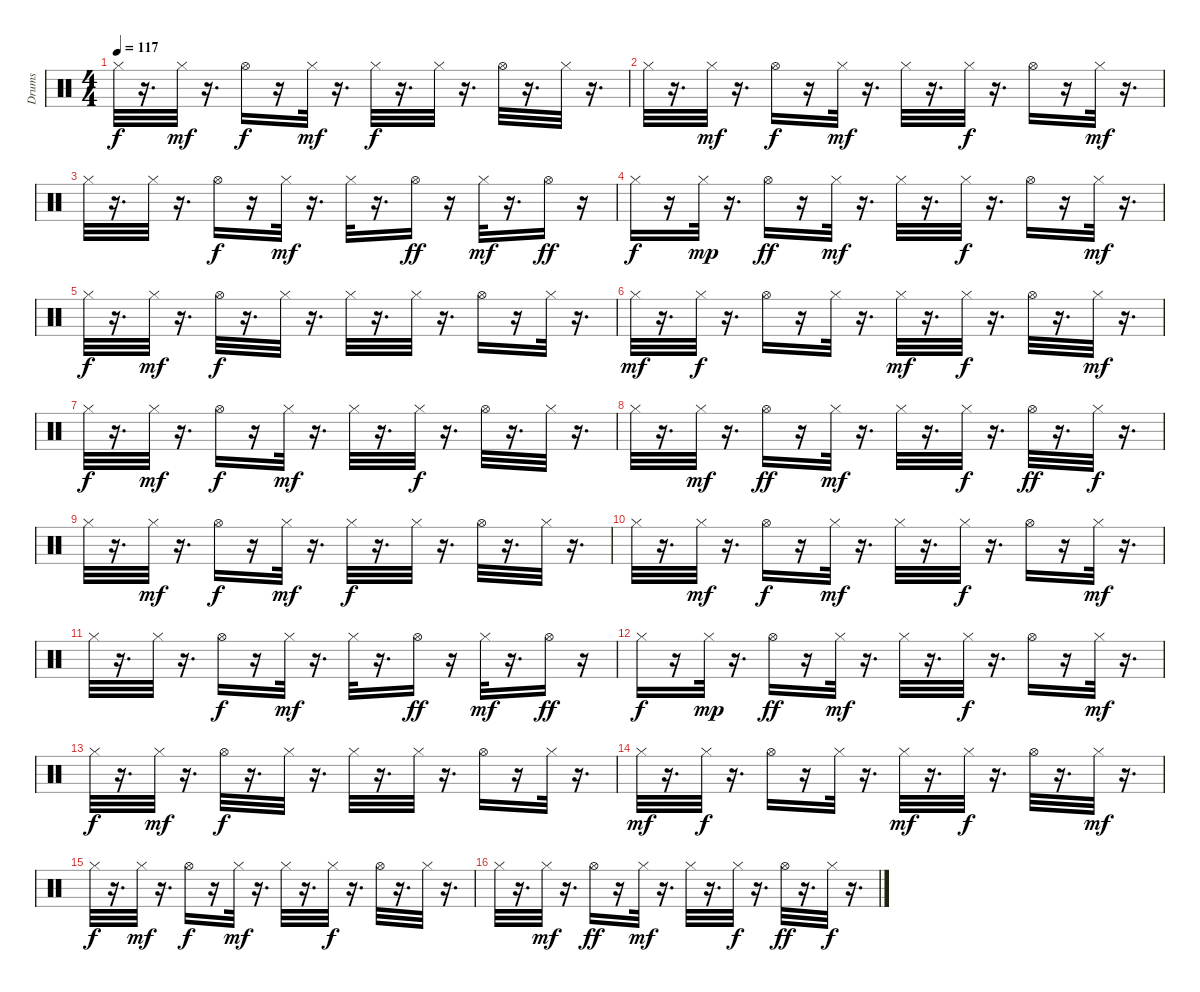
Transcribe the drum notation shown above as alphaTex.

\track ("Drums" "Drums") {instrument percussion}
\staff {score}
\articulation defaults
\ts (4 4)
\tempo 117
\clef neutral
\ks c "Hi-Hat (closed)".32{dy f}
r.16{d} "Hi-Hat (closed)".32{dy mf} r.16{d} "Hi-Hat (open)".16{dy f} r.16 "Hi-Hat (closed)".32{dy mf} r.16{d} "Hi-Hat (closed)".32{dy f} r.16{d} "Hi-Hat (closed)".32 r.16{d} "Hi-Hat (open)".32 r.16{d} "Hi-Hat (closed)".32 r.16{d} |
"Hi-Hat (closed)".32 r.16{d} "Hi-Hat (closed)".32{dy mf} r.16{d} "Hi-Hat (open)".16{dy f} r.16 "Hi-Hat (closed)".32{dy mf} r.16{d} "Hi-Hat (closed)".32 r.16{d} "Hi-Hat (closed)".32{dy f} r.16{d} "Hi-Hat (open)".16 r.16 "Hi-Hat (closed)".32{dy mf} r.16{d} |
"Hi-Hat (closed)".32 r.16{d} "Hi-Hat (closed)".32 r.16{d} "Hi-Hat (open)".16{dy f} r.16 "Hi-Hat (closed)".32{dy mf} r.16{d} "Hi-Hat (closed)".32 r.16{d} "Hi-Hat (open)".16{dy ff} r.16 "Hi-Hat (closed)".32{dy mf} r.16{d} "Hi-Hat (open)".16{dy ff} r.16 |
"Hi-Hat (closed)".16{dy f} r.16 "Hi-Hat (closed)".32{dy mp} r.16{d} "Hi-Hat (open)".16{dy ff} r.16 "Hi-Hat (closed)".32{dy mf} r.16{d} "Hi-Hat (closed)".32 r.16{d} "Hi-Hat (closed)".32{dy f} r.16{d} "Hi-Hat (open)".16 r.16 "Hi-Hat (closed)".32{dy mf} r.16{d} |
"Hi-Hat (closed)".32{dy f} r.16{d} "Hi-Hat (closed)".32{dy mf} r.16{d} "Hi-Hat (open)".32{dy f} r.16{d} "Hi-Hat (closed)".32 r.16{d} "Hi-Hat (closed)".32 r.16{d} "Hi-Hat (closed)".32 r.16{d} "Hi-Hat (open)".16 r.16 "Hi-Hat (closed)".32 r.16{d} |
"Hi-Hat (closed)".32{dy mf} r.16{d} "Hi-Hat (closed)".32{dy f} r.16{d} "Hi-Hat (open)".16 r.16 "Hi-Hat (closed)".32 r.16{d} "Hi-Hat (closed)".32{dy mf} r.16{d} "Hi-Hat (closed)".32{dy f} r.16{d} "Hi-Hat (open)".32 r.16{d} "Hi-Hat (closed)".32{dy mf} r.16{d} |
"Hi-Hat (closed)".32{dy f} r.16{d} "Hi-Hat (closed)".32{dy mf} r.16{d} "Hi-Hat (open)".16{dy f} r.16 "Hi-Hat (closed)".32{dy mf} r.16{d} "Hi-Hat (closed)".32 r.16{d} "Hi-Hat (closed)".32{dy f} r.16{d} "Hi-Hat (open)".32 r.16{d} "Hi-Hat (closed)".32 r.16{d} |
"Hi-Hat (closed)".32 r.16{d} "Hi-Hat (closed)".32{dy mf} r.16{d} "Hi-Hat (open)".16{dy ff} r.16 "Hi-Hat (closed)".32{dy mf} r.16{d} "Hi-Hat (closed)".32 r.16{d} "Hi-Hat (closed)".32{dy f} r.16{d} "Hi-Hat (open)".32{dy ff} r.16{d} "Hi-Hat (closed)".32{dy f} r.16{d} |
"Hi-Hat (closed)".32 r.16{d} "Hi-Hat (closed)".32{dy mf} r.16{d} "Hi-Hat (open)".16{dy f} r.16 "Hi-Hat (closed)".32{dy mf} r.16{d} "Hi-Hat (closed)".32{dy f} r.16{d} "Hi-Hat (closed)".32 r.16{d} "Hi-Hat (open)".32 r.16{d} "Hi-Hat (closed)".32 r.16{d} |
"Hi-Hat (closed)".32 r.16{d} "Hi-Hat (closed)".32{dy mf} r.16{d} "Hi-Hat (open)".16{dy f} r.16 "Hi-Hat (closed)".32{dy mf} r.16{d} "Hi-Hat (closed)".32 r.16{d} "Hi-Hat (closed)".32{dy f} r.16{d} "Hi-Hat (open)".16 r.16 "Hi-Hat (closed)".32{dy mf} r.16{d} |
"Hi-Hat (closed)".32 r.16{d} "Hi-Hat (closed)".32 r.16{d} "Hi-Hat (open)".16{dy f} r.16 "Hi-Hat (closed)".32{dy mf} r.16{d} "Hi-Hat (closed)".32 r.16{d} "Hi-Hat (open)".16{dy ff} r.16 "Hi-Hat (closed)".32{dy mf} r.16{d} "Hi-Hat (open)".16{dy ff} r.16 |
"Hi-Hat (closed)".16{dy f} r.16 "Hi-Hat (closed)".32{dy mp} r.16{d} "Hi-Hat (open)".16{dy ff} r.16 "Hi-Hat (closed)".32{dy mf} r.16{d} "Hi-Hat (closed)".32 r.16{d} "Hi-Hat (closed)".32{dy f} r.16{d} "Hi-Hat (open)".16 r.16 "Hi-Hat (closed)".32{dy mf} r.16{d} |
"Hi-Hat (closed)".32{dy f} r.16{d} "Hi-Hat (closed)".32{dy mf} r.16{d} "Hi-Hat (open)".32{dy f} r.16{d} "Hi-Hat (closed)".32 r.16{d} "Hi-Hat (closed)".32 r.16{d} "Hi-Hat (closed)".32 r.16{d} "Hi-Hat (open)".16 r.16 "Hi-Hat (closed)".32 r.16{d} |
"Hi-Hat (closed)".32{dy mf} r.16{d} "Hi-Hat (closed)".32{dy f} r.16{d} "Hi-Hat (open)".16 r.16 "Hi-Hat (closed)".32 r.16{d} "Hi-Hat (closed)".32{dy mf} r.16{d} "Hi-Hat (closed)".32{dy f} r.16{d} "Hi-Hat (open)".32 r.16{d} "Hi-Hat (closed)".32{dy mf} r.16{d} |
"Hi-Hat (closed)".32{dy f} r.16{d} "Hi-Hat (closed)".32{dy mf} r.16{d} "Hi-Hat (open)".16{dy f} r.16 "Hi-Hat (closed)".32{dy mf} r.16{d} "Hi-Hat (closed)".32 r.16{d} "Hi-Hat (closed)".32{dy f} r.16{d} "Hi-Hat (open)".32 r.16{d} "Hi-Hat (closed)".32 r.16{d} |
"Hi-Hat (closed)".32 r.16{d} "Hi-Hat (closed)".32{dy mf} r.16{d} "Hi-Hat (open)".16{dy ff} r.16 "Hi-Hat (closed)".32{dy mf} r.16{d} "Hi-Hat (closed)".32 r.16{d} "Hi-Hat (closed)".32{dy f} r.16{d} "Hi-Hat (open)".32{dy ff} r.16{d} "Hi-Hat (closed)".32{dy f} r.16{d}
